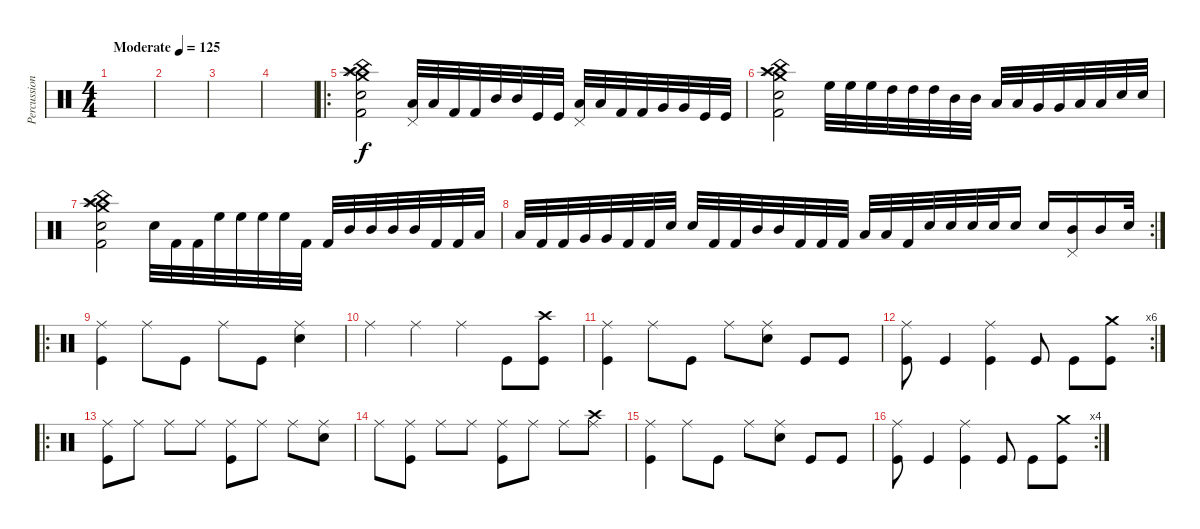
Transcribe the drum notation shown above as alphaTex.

\track ("Percussion" "Percussion") {instrument percussion}
\staff {score}
\articulation defaults
\ts (4 4)
\tempo (125 "Moderate")
\clef neutral
\ks c
|
|
|
|
\ro
("Kick (hit) 2" "Electric Snare (hit)" "Crash high (hit)" "Crash medium (hit)" "Splash (hit)" "China (hit)").2 ("Low Tom (hit)" "Pedal Hi-Hat (hit)").32 "Low Tom (hit)".32 "Kick (hit) 2".32 "Kick (hit) 2".32 "Mid Tom (hit)".32 "Mid Tom (hit)".32 "Kick (hit)".32 "Kick (hit)".32 ("Low Tom (hit)" "Pedal Hi-Hat (hit)").32 "Low Tom (hit)".32 "Kick (hit) 2".32 "Kick (hit) 2".32 "Very Low Tom (hit)".32 "Very Low Tom (hit)".32 "Kick (hit)".32 "Kick (hit)".32 |
("Kick (hit) 2" "Electric Snare (hit)" "Crash high (hit)" "Crash medium (hit)" "Splash (hit)" "China (hit)").2 "High Floor Tom (hit)".32 "High Floor Tom (hit)".32 "High Floor Tom (hit)".32 "High Tom (hit)".32 "High Tom (hit)".32 "High Tom (hit)".32 "Mid Tom (hit)".32 "Mid Tom (hit)".32 "Low Tom (hit)".32 "Low Tom (hit)".32 "Very Low Tom (hit)".32 "Very Low Tom (hit)".32 "Low Floor Tom (hit)".32 "Low Floor Tom (hit)".32 "Electric Snare (hit)".32 "Electric Snare (hit)".32 |
("Kick (hit) 2" "Electric Snare (hit)" "Crash high (hit)" "Crash medium (hit)" "Splash (hit)" "China (hit)").2 "Electric Snare (hit)".32 "Kick (hit) 2".32 "Kick (hit) 2".32 "High Floor Tom (hit)".32 "High Floor Tom (hit)".32 "High Floor Tom (hit)".32 "High Floor Tom (hit)".32 "Kick (hit) 2".32 "Kick (hit) 2".32 "Mid Tom (hit)".32 "Mid Tom (hit)".32 "Mid Tom (hit)".32 "Mid Tom (hit)".32 "Kick (hit) 2".32 "Kick (hit) 2".32 "Low Tom (hit)".32 |
\rc 2 "Low Tom (hit)".32 "Kick (hit) 2".32 "Kick (hit) 2".32 "Very Low Tom (hit)".32 "Very Low Tom (hit)".32 "Kick (hit) 2".32 "Kick (hit) 2".32 "Electric Snare (hit)".32 "Electric Snare (hit)".32 "Kick (hit) 2".32 "Kick (hit) 2".32 "Mid Tom (hit)".32 "Mid Tom (hit)".32 "Kick (hit) 2".32 "Kick (hit) 2".32 "Kick (hit) 2".32 "Low Tom (hit)".32 "Low Tom (hit)".32 "Kick (hit) 2".32 "Electric Snare (hit)".32 "Electric Snare (hit)".32 "Electric Snare (hit)".32 "Electric Snare (hit)".32 "Electric Snare (hit)".16 "Electric Snare (hit)".16
("Mid Tom (hit)" "Pedal Hi-Hat (hit)").16 "Mid Tom (hit)".16 "Electric Snare (hit)".32 |
\ro
("Ride (middle)" "Kick (hit)").4 "Ride (middle)".8 "Kick (hit)".8 "Ride (middle)".8 "Kick (hit)".8 ("Ride (middle)" "Electric Snare (hit)").4 |
"Ride (middle)".4 "Ride (middle)".4 "Ride (middle)".4 "Kick (hit)".8 ("Crash high (hit)" "Kick (hit)").8 |
("Ride (middle)" "Kick (hit)").4 "Ride (middle)".8 "Kick (hit)".8 "Ride (middle)".8 ("Ride (middle)" "Electric Snare (hit)").8 "Kick (hit)".8 "Kick (hit)".8 |
\rc 6
("Ride (middle)" "Kick (hit)").8 "Kick (hit)".4 ("Ride (middle)" "Kick (hit)").4 "Kick (hit)".8 "Kick (hit)".8 ("Crash medium (hit)" "Kick (hit)").8 |
\ro
("Ride (middle)" "Kick (hit)").8 "Ride (middle)".8 "Ride (middle)".8 "Ride (middle)".8 ("Ride (middle)" "Kick (hit)").8 "Ride (middle)".8 "Ride (middle)".8 ("Ride (middle)" "Electric Snare (hit)").8 |
"Ride (middle)".8 ("Ride (middle)" "Kick (hit)").8 "Ride (middle)".8 "Ride (middle)".8 ("Ride (middle)" "Kick (hit)").8 "Ride (middle)".8 "Ride (middle)".8 ("Ride (middle)" "Crash high (hit)").8 |
("Ride (middle)" "Kick (hit)").4 "Ride (middle)".8 "Kick (hit)".8 "Ride (middle)".8 ("Ride (middle)" "Electric Snare (hit)").8 "Kick (hit)".8 "Kick (hit)".8 |
\rc 4
("Ride (middle)" "Kick (hit)").8 "Kick (hit)".4 ("Ride (middle)" "Kick (hit)").4 "Kick (hit)".8 "Kick (hit)".8 ("Crash medium (hit)" "Kick (hit)").8
